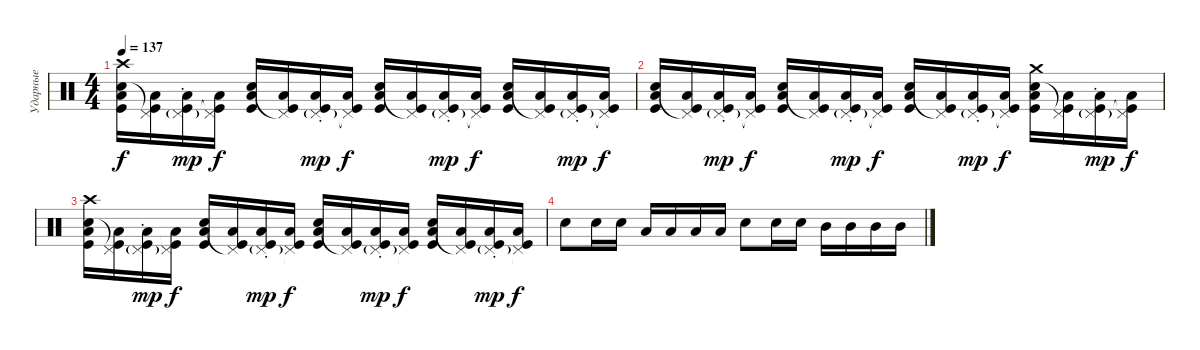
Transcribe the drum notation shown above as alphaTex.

\track ("Ударные" "Ударные") {instrument percussion}
\staff {score}
\articulation defaults
\ts (4 4)
\tempo 137
\clef neutral
\ks c
("Kick (hit)" "Low Tom (hit)" "Electric Snare (hit)" "Crash high (hit)").16{dy f} ("Kick (hit)" "Low Tom (hit)" "Pedal Hi-Hat (hit)"{t}).16 ("Kick (hit)" "Low Tom (hit)" "Pedal Hi-Hat (hit)"{g st}).16{dy mp} ("Kick (hit)" "Low Tom (hit)" "Pedal Hi-Hat (hit)"{t}).16{dy f} ("Kick (hit)" "Low Tom (hit)" "Electric Snare (hit)").16 ("Kick (hit)" "Low Tom (hit)" "Pedal Hi-Hat (hit)"{t}).16 ("Kick (hit)" "Low Tom (hit)" "Pedal Hi-Hat (hit)"{g st}).16{dy mp} ("Kick (hit)" "Low Tom (hit)" "Pedal Hi-Hat (hit)"{t}).16{dy f} ("Kick (hit)" "Low Tom (hit)" "Electric Snare (hit)").16 ("Kick (hit)" "Low Tom (hit)" "Pedal Hi-Hat (hit)"{t}).16 ("Kick (hit)" "Low Tom (hit)" "Pedal Hi-Hat (hit)"{g st}).16{dy mp} ("Kick (hit)" "Low Tom (hit)" "Pedal Hi-Hat (hit)"{t}).16{dy f} ("Kick (hit)" "Low Tom (hit)" "Electric Snare (hit)").16 ("Kick (hit)" "Low Tom (hit)" "Pedal Hi-Hat (hit)"{t}).16 ("Kick (hit)" "Low Tom (hit)" "Pedal Hi-Hat (hit)"{g st}).16{dy mp} ("Kick (hit)" "Low Tom (hit)" "Pedal Hi-Hat (hit)"{t}).16{dy f} |
("Kick (hit)" "Low Tom (hit)" "Electric Snare (hit)").16 ("Kick (hit)" "Low Tom (hit)" "Pedal Hi-Hat (hit)"{t}).16 ("Kick (hit)" "Low Tom (hit)" "Pedal Hi-Hat (hit)"{g st}).16{dy mp} ("Kick (hit)" "Low Tom (hit)" "Pedal Hi-Hat (hit)"{t}).16{dy f} ("Kick (hit)" "Low Tom (hit)" "Electric Snare (hit)").16 ("Kick (hit)" "Low Tom (hit)" "Pedal Hi-Hat (hit)"{t}).16 ("Kick (hit)" "Low Tom (hit)" "Pedal Hi-Hat (hit)"{g st}).16{dy mp} ("Kick (hit)" "Low Tom (hit)" "Pedal Hi-Hat (hit)"{t}).16{dy f} ("Kick (hit)" "Low Tom (hit)" "Electric Snare (hit)").16 ("Kick (hit)" "Low Tom (hit)" "Pedal Hi-Hat (hit)"{t}).16 ("Kick (hit)" "Low Tom (hit)" "Pedal Hi-Hat (hit)"{g st}).16{dy mp} ("Kick (hit)" "Low Tom (hit)" "Pedal Hi-Hat (hit)"{t}).16{dy f} ("Kick (hit)" "Low Tom (hit)" "Electric Snare (hit)" "Crash medium (hit)").16 ("Kick (hit)" "Low Tom (hit)" "Pedal Hi-Hat (hit)"{t}).16 ("Kick (hit)" "Low Tom (hit)" "Pedal Hi-Hat (hit)"{g st}).16{dy mp} ("Kick (hit)" "Low Tom (hit)" "Pedal Hi-Hat (hit)"{t}).16{dy f} |
("Kick (hit)" "Low Tom (hit)" "Electric Snare (hit)" "Crash high (hit)").16 ("Kick (hit)" "Low Tom (hit)" "Pedal Hi-Hat (hit)"{t}).16 ("Kick (hit)" "Low Tom (hit)" "Pedal Hi-Hat (hit)"{g st}).16{dy mp} ("Kick (hit)" "Low Tom (hit)" "Pedal Hi-Hat (hit)"{t}).16{dy f} ("Kick (hit)" "Low Tom (hit)" "Electric Snare (hit)").16 ("Kick (hit)" "Low Tom (hit)" "Pedal Hi-Hat (hit)"{t}).16 ("Kick (hit)" "Low Tom (hit)" "Pedal Hi-Hat (hit)"{g st}).16{dy mp} ("Kick (hit)" "Low Tom (hit)" "Pedal Hi-Hat (hit)"{t}).16{dy f} ("Kick (hit)" "Low Tom (hit)" "Electric Snare (hit)").16 ("Kick (hit)" "Low Tom (hit)" "Pedal Hi-Hat (hit)"{t}).16 ("Kick (hit)" "Low Tom (hit)" "Pedal Hi-Hat (hit)"{g st}).16{dy mp} ("Kick (hit)" "Low Tom (hit)" "Pedal Hi-Hat (hit)"{t}).16{dy f} ("Kick (hit)" "Low Tom (hit)" "Electric Snare (hit)").16 ("Kick (hit)" "Low Tom (hit)" "Pedal Hi-Hat (hit)"{t}).16 ("Kick (hit)" "Low Tom (hit)" "Pedal Hi-Hat (hit)"{g st}).16{dy mp} ("Kick (hit)" "Low Tom (hit)" "Pedal Hi-Hat (hit)"{t}).16{dy f} |
"Electric Snare (hit)".8 "Electric Snare (hit)".16 "Electric Snare (hit)".16 "Low Tom (hit)".16 "Low Tom (hit)".16 "Low Tom (hit)".16 "Low Tom (hit)".16 "Electric Snare (hit)".8 "Electric Snare (hit)".16 "Electric Snare (hit)".16 "Mid Tom (hit)".16 "Mid Tom (hit)".16 "Mid Tom (hit)".16 "Mid Tom (hit)".16
